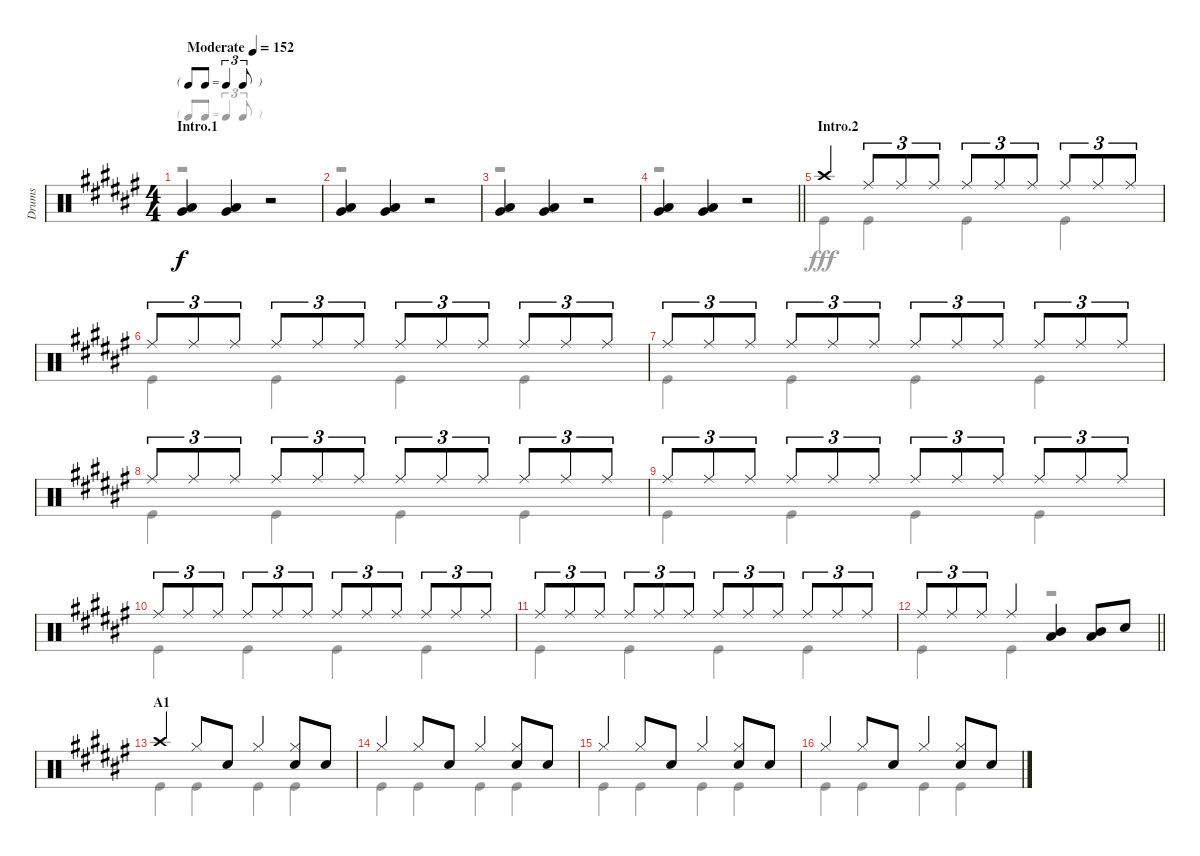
\track ("Drums" "Drums") {instrument percussion}
\staff {score}
\articulation defaults
\voice
\ts (4 4)
\tf triplet8th
\section ("" "Intro.1")
\tempo (152 "Moderate")
\clef neutral
\ks f#
("Low Tom (hit)" "Very Low Tom (hit)").4{dy f} ("Low Tom (hit)" "Very Low Tom (hit)").4 r.2 |
("Low Tom (hit)" "Very Low Tom (hit)").4 ("Low Tom (hit)" "Very Low Tom (hit)").4 r.2 |
("Low Tom (hit)" "Very Low Tom (hit)").4 ("Low Tom (hit)" "Very Low Tom (hit)").4 r.2 |
\barLineRight lightlight
("Low Tom (hit)" "Very Low Tom (hit)").4 ("Low Tom (hit)" "Very Low Tom (hit)").4 r.2 |
\section ("" "Intro.2")
"Crash high (hit)".4 "Ride (middle)".8{tu (3 2)} "Ride (middle)".8{tu (3 2)} "Ride (middle)".8{tu (3 2)} "Ride (middle)".8{tu (3 2)} "Ride (middle)".8{tu (3 2)} "Ride (middle)".8{tu (3 2)} "Ride (middle)".8{tu (3 2)} "Ride (middle)".8{tu (3 2)} "Ride (middle)".8{tu (3 2)} |
"Ride (middle)".8{tu (3 2)} "Ride (middle)".8{tu (3 2)} "Ride (middle)".8{tu (3 2)} "Ride (middle)".8{tu (3 2)} "Ride (middle)".8{tu (3 2)} "Ride (middle)".8{tu (3 2)} "Ride (middle)".8{tu (3 2)} "Ride (middle)".8{tu (3 2)} "Ride (middle)".8{tu (3 2)} "Ride (middle)".8{tu (3 2)} "Ride (middle)".8{tu (3 2)} "Ride (middle)".8{tu (3 2)} |
"Ride (middle)".8{tu (3 2)} "Ride (middle)".8{tu (3 2)} "Ride (middle)".8{tu (3 2)} "Ride (middle)".8{tu (3 2)} "Ride (middle)".8{tu (3 2)} "Ride (middle)".8{tu (3 2)} "Ride (middle)".8{tu (3 2)} "Ride (middle)".8{tu (3 2)} "Ride (middle)".8{tu (3 2)} "Ride (middle)".8{tu (3 2)} "Ride (middle)".8{tu (3 2)} "Ride (middle)".8{tu (3 2)} |
"Ride (middle)".8{tu (3 2)} "Ride (middle)".8{tu (3 2)} "Ride (middle)".8{tu (3 2)} "Ride (middle)".8{tu (3 2)} "Ride (middle)".8{tu (3 2)} "Ride (middle)".8{tu (3 2)} "Ride (middle)".8{tu (3 2)} "Ride (middle)".8{tu (3 2)} "Ride (middle)".8{tu (3 2)} "Ride (middle)".8{tu (3 2)} "Ride (middle)".8{tu (3 2)} "Ride (middle)".8{tu (3 2)} |
"Ride (middle)".8{tu (3 2)} "Ride (middle)".8{tu (3 2)} "Ride (middle)".8{tu (3 2)} "Ride (middle)".8{tu (3 2)} "Ride (middle)".8{tu (3 2)} "Ride (middle)".8{tu (3 2)} "Ride (middle)".8{tu (3 2)} "Ride (middle)".8{tu (3 2)} "Ride (middle)".8{tu (3 2)} "Ride (middle)".8{tu (3 2)} "Ride (middle)".8{tu (3 2)} "Ride (middle)".8{tu (3 2)} |
"Ride (middle)".8{tu (3 2)} "Ride (middle)".8{tu (3 2)} "Ride (middle)".8{tu (3 2)} "Ride (middle)".8{tu (3 2)} "Ride (middle)".8{tu (3 2)} "Ride (middle)".8{tu (3 2)} "Ride (middle)".8{tu (3 2)} "Ride (middle)".8{tu (3 2)} "Ride (middle)".8{tu (3 2)} "Ride (middle)".8{tu (3 2)} "Ride (middle)".8{tu (3 2)} "Ride (middle)".8{tu (3 2)} |
"Ride (middle)".8{tu (3 2)} "Ride (middle)".8{tu (3 2)} "Ride (middle)".8{tu (3 2)} "Ride (middle)".8{tu (3 2)} "Ride (middle)".8{tu (3 2)} "Ride (middle)".8{tu (3 2)} "Ride (middle)".8{tu (3 2)} "Ride (middle)".8{tu (3 2)} "Ride (middle)".8{tu (3 2)} "Ride (middle)".8{tu (3 2)} "Ride (middle)".8{tu (3 2)} "Ride (middle)".8{tu (3 2)} |
\barLineRight lightlight "Ride (middle)".8{tu (3 2)} "Ride (middle)".8{tu (3 2)} "Ride (middle)".8{tu (3 2)} "Ride (middle)".4
("Mid Tom (hit)" "Low Tom (hit)").4 ("Mid Tom (hit)" "Low Tom (hit)").8 "Snare (hit) 2".8 |
\section ("" "A1")
"Crash high (hit)".4 "Hi-Hat (closed)".8 "Snare (hit) 2".8 "Hi-Hat (closed)".4 ("Hi-Hat (closed)" "Snare (hit) 2").8 "Snare (hit) 2".8 |
"Hi-Hat (closed)".4 "Hi-Hat (closed)".8 "Snare (hit) 2".8 "Hi-Hat (closed)".4 ("Hi-Hat (closed)" "Snare (hit) 2").8 "Snare (hit) 2".8 |
"Hi-Hat (closed)".4 "Hi-Hat (closed)".8 "Snare (hit) 2".8 "Hi-Hat (closed)".4 ("Hi-Hat (closed)" "Snare (hit) 2").8 "Snare (hit) 2".8 |
"Hi-Hat (closed)".4 "Hi-Hat (closed)".8 "Snare (hit) 2".8 "Hi-Hat (closed)".4 ("Hi-Hat (closed)" "Snare (hit) 2").8 "Snare (hit) 2".8
\voice
\clef neutral
\ottava regular
\simile none
\ks f#
r.1{dy fff} |
r.1 |
r.1 |
\barLineRight lightlight
r.1 |
"Kick (hit)".4 "Kick (hit)".4 "Kick (hit)".4 "Kick (hit)".4 |
"Kick (hit)".4 "Kick (hit)".4 "Kick (hit)".4 "Kick (hit)".4 |
"Kick (hit)".4 "Kick (hit)".4 "Kick (hit)".4 "Kick (hit)".4 |
"Kick (hit)".4 "Kick (hit)".4 "Kick (hit)".4 "Kick (hit)".4 |
"Kick (hit)".4 "Kick (hit)".4 "Kick (hit)".4 "Kick (hit)".4 |
"Kick (hit)".4 "Kick (hit)".4 "Kick (hit)".4 "Kick (hit)".4 |
"Kick (hit)".4 "Kick (hit)".4 "Kick (hit)".4 "Kick (hit)".4 |
\barLineRight lightlight "Kick (hit)".4 "Kick (hit)".4
r.2 |
"Kick (hit)".4 "Kick (hit)".4 "Kick (hit)".4 "Kick (hit)".4 |
"Kick (hit)".4 "Kick (hit)".4 "Kick (hit)".4 "Kick (hit)".4 |
"Kick (hit)".4 "Kick (hit)".4 "Kick (hit)".4 "Kick (hit)".4 |
"Kick (hit)".4 "Kick (hit)".4 "Kick (hit)".4 "Kick (hit)".4
